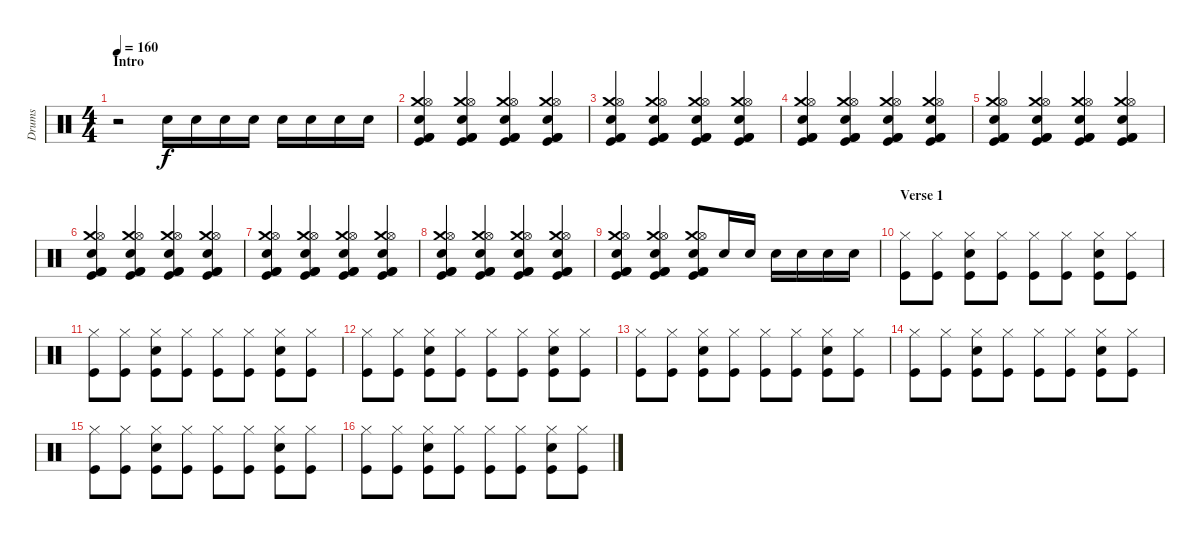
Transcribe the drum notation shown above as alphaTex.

\track ("Drums" "Drums") {instrument percussion}
\staff {score}
\articulation defaults
\ts (4 4)
\section ("" "Intro")
\tempo 160
\clef neutral
\ks c
r.2{dy f} "Electric Snare (hit)".16 "Electric Snare (hit)".16 "Electric Snare (hit)".16 "Electric Snare (hit)".16 "Electric Snare (hit)".16 "Electric Snare (hit)".16 "Electric Snare (hit)".16 "Electric Snare (hit)".16 |
("Crash medium (hit)" "Hi-Hat (open)" "Electric Snare (hit)" "Kick (hit) 2" "Kick (hit)" "Kick (hit) 2").4 ("Crash medium (hit)" "Hi-Hat (open)" "Electric Snare (hit)" "Kick (hit) 2" "Kick (hit)" "Kick (hit) 2").4 ("Crash medium (hit)" "Hi-Hat (open)" "Electric Snare (hit)" "Kick (hit) 2" "Kick (hit)" "Kick (hit) 2").4 ("Crash medium (hit)" "Hi-Hat (open)" "Electric Snare (hit)" "Kick (hit) 2" "Kick (hit)" "Kick (hit) 2").4 |
("Crash medium (hit)" "Hi-Hat (open)" "Electric Snare (hit)" "Kick (hit) 2" "Kick (hit)" "Kick (hit) 2").4 ("Crash medium (hit)" "Hi-Hat (open)" "Electric Snare (hit)" "Kick (hit) 2" "Kick (hit)" "Kick (hit) 2").4 ("Crash medium (hit)" "Hi-Hat (open)" "Electric Snare (hit)" "Kick (hit) 2" "Kick (hit)" "Kick (hit) 2").4 ("Crash medium (hit)" "Hi-Hat (open)" "Electric Snare (hit)" "Kick (hit) 2" "Kick (hit)" "Kick (hit) 2").4 |
("Crash medium (hit)" "Hi-Hat (open)" "Electric Snare (hit)" "Kick (hit) 2" "Kick (hit)" "Kick (hit) 2").4 ("Crash medium (hit)" "Hi-Hat (open)" "Electric Snare (hit)" "Kick (hit) 2" "Kick (hit)" "Kick (hit) 2").4 ("Crash medium (hit)" "Hi-Hat (open)" "Electric Snare (hit)" "Kick (hit) 2" "Kick (hit)" "Kick (hit) 2").4 ("Crash medium (hit)" "Hi-Hat (open)" "Electric Snare (hit)" "Kick (hit) 2" "Kick (hit)" "Kick (hit) 2").4 |
("Crash medium (hit)" "Hi-Hat (open)" "Electric Snare (hit)" "Kick (hit) 2" "Kick (hit)" "Kick (hit) 2").4 ("Crash medium (hit)" "Hi-Hat (open)" "Electric Snare (hit)" "Kick (hit) 2" "Kick (hit)" "Kick (hit) 2").4 ("Crash medium (hit)" "Hi-Hat (open)" "Electric Snare (hit)" "Kick (hit) 2" "Kick (hit)" "Kick (hit) 2").4 ("Crash medium (hit)" "Hi-Hat (open)" "Electric Snare (hit)" "Kick (hit) 2" "Kick (hit)" "Kick (hit) 2").4 |
("Crash medium (hit)" "Hi-Hat (open)" "Electric Snare (hit)" "Kick (hit) 2" "Kick (hit)" "Kick (hit) 2").4 ("Crash medium (hit)" "Hi-Hat (open)" "Electric Snare (hit)" "Kick (hit) 2" "Kick (hit)" "Kick (hit) 2").4 ("Crash medium (hit)" "Hi-Hat (open)" "Electric Snare (hit)" "Kick (hit) 2" "Kick (hit)" "Kick (hit) 2").4 ("Crash medium (hit)" "Hi-Hat (open)" "Electric Snare (hit)" "Kick (hit) 2" "Kick (hit)" "Kick (hit) 2").4 |
("Crash medium (hit)" "Hi-Hat (open)" "Electric Snare (hit)" "Kick (hit) 2" "Kick (hit)" "Kick (hit) 2").4 ("Crash medium (hit)" "Hi-Hat (open)" "Electric Snare (hit)" "Kick (hit) 2" "Kick (hit)" "Kick (hit) 2").4 ("Crash medium (hit)" "Hi-Hat (open)" "Electric Snare (hit)" "Kick (hit) 2" "Kick (hit)" "Kick (hit) 2").4 ("Crash medium (hit)" "Hi-Hat (open)" "Electric Snare (hit)" "Kick (hit) 2" "Kick (hit)" "Kick (hit) 2").4 |
("Crash medium (hit)" "Hi-Hat (open)" "Electric Snare (hit)" "Kick (hit) 2" "Kick (hit)" "Kick (hit) 2").4 ("Crash medium (hit)" "Hi-Hat (open)" "Electric Snare (hit)" "Kick (hit) 2" "Kick (hit)" "Kick (hit) 2").4 ("Crash medium (hit)" "Hi-Hat (open)" "Electric Snare (hit)" "Kick (hit) 2" "Kick (hit)" "Kick (hit) 2").4 ("Crash medium (hit)" "Hi-Hat (open)" "Electric Snare (hit)" "Kick (hit) 2" "Kick (hit)" "Kick (hit) 2").4 |
("Crash medium (hit)" "Hi-Hat (open)" "Electric Snare (hit)" "Kick (hit) 2" "Kick (hit)" "Kick (hit) 2").4 ("Crash medium (hit)" "Hi-Hat (open)" "Electric Snare (hit)" "Kick (hit) 2" "Kick (hit)" "Kick (hit) 2").4 ("Crash medium (hit)" "Hi-Hat (open)" "Electric Snare (hit)" "Kick (hit) 2" "Kick (hit)" "Kick (hit) 2").8 "Electric Snare (hit)".16 "Electric Snare (hit)".16 "Electric Snare (hit)".16 "Electric Snare (hit)".16 "Electric Snare (hit)".16 "Electric Snare (hit)".16 |
\section ("" "Verse 1")
("Hi-Hat (closed)" "Kick (hit)").8 ("Hi-Hat (closed)" "Kick (hit)").8 ("Hi-Hat (closed)" "Electric Snare (hit)" "Kick (hit)").8 ("Hi-Hat (closed)" "Kick (hit)").8 ("Hi-Hat (closed)" "Kick (hit)").8 ("Hi-Hat (closed)" "Kick (hit)").8 ("Hi-Hat (closed)" "Electric Snare (hit)" "Kick (hit)").8 ("Hi-Hat (closed)" "Kick (hit)").8 |
("Hi-Hat (closed)" "Kick (hit)").8 ("Hi-Hat (closed)" "Kick (hit)").8 ("Hi-Hat (closed)" "Electric Snare (hit)" "Kick (hit)").8 ("Hi-Hat (closed)" "Kick (hit)").8 ("Hi-Hat (closed)" "Kick (hit)").8 ("Hi-Hat (closed)" "Kick (hit)").8 ("Hi-Hat (closed)" "Electric Snare (hit)" "Kick (hit)").8 ("Hi-Hat (closed)" "Kick (hit)").8 |
("Hi-Hat (closed)" "Kick (hit)").8 ("Hi-Hat (closed)" "Kick (hit)").8 ("Hi-Hat (closed)" "Electric Snare (hit)" "Kick (hit)").8 ("Hi-Hat (closed)" "Kick (hit)").8 ("Hi-Hat (closed)" "Kick (hit)").8 ("Hi-Hat (closed)" "Kick (hit)").8 ("Hi-Hat (closed)" "Electric Snare (hit)" "Kick (hit)").8 ("Hi-Hat (closed)" "Kick (hit)").8 |
("Hi-Hat (closed)" "Kick (hit)").8 ("Hi-Hat (closed)" "Kick (hit)").8 ("Hi-Hat (closed)" "Electric Snare (hit)" "Kick (hit)").8 ("Hi-Hat (closed)" "Kick (hit)").8 ("Hi-Hat (closed)" "Kick (hit)").8 ("Hi-Hat (closed)" "Kick (hit)").8 ("Hi-Hat (closed)" "Electric Snare (hit)" "Kick (hit)").8 ("Hi-Hat (closed)" "Kick (hit)").8 |
("Hi-Hat (closed)" "Kick (hit)").8 ("Hi-Hat (closed)" "Kick (hit)").8 ("Hi-Hat (closed)" "Electric Snare (hit)" "Kick (hit)").8 ("Hi-Hat (closed)" "Kick (hit)").8 ("Hi-Hat (closed)" "Kick (hit)").8 ("Hi-Hat (closed)" "Kick (hit)").8 ("Hi-Hat (closed)" "Electric Snare (hit)" "Kick (hit)").8 ("Hi-Hat (closed)" "Kick (hit)").8 |
("Hi-Hat (closed)" "Kick (hit)").8 ("Hi-Hat (closed)" "Kick (hit)").8 ("Hi-Hat (closed)" "Electric Snare (hit)" "Kick (hit)").8 ("Hi-Hat (closed)" "Kick (hit)").8 ("Hi-Hat (closed)" "Kick (hit)").8 ("Hi-Hat (closed)" "Kick (hit)").8 ("Hi-Hat (closed)" "Electric Snare (hit)" "Kick (hit)").8 ("Hi-Hat (closed)" "Kick (hit)").8 |
("Hi-Hat (closed)" "Kick (hit)").8 ("Hi-Hat (closed)" "Kick (hit)").8 ("Hi-Hat (closed)" "Electric Snare (hit)" "Kick (hit)").8 ("Hi-Hat (closed)" "Kick (hit)").8 ("Hi-Hat (closed)" "Kick (hit)").8 ("Hi-Hat (closed)" "Kick (hit)").8 ("Hi-Hat (closed)" "Electric Snare (hit)" "Kick (hit)").8 ("Hi-Hat (closed)" "Kick (hit)").8
